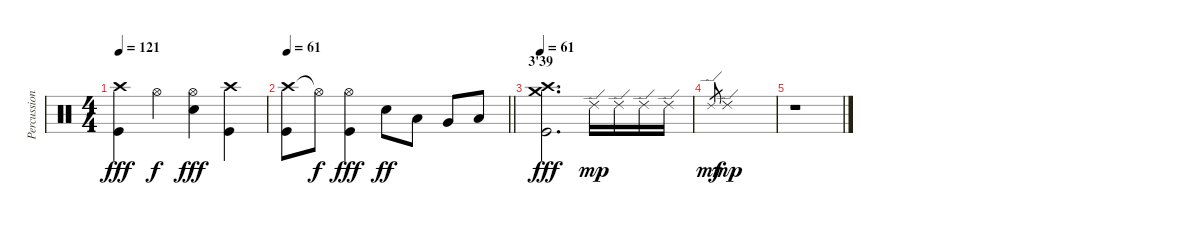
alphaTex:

\track ("Percussions" "Percussion") {instrument percussion}
\staff {score}
\articulation defaults
\ts (4 4)
\tempo 121
\clef neutral
\ks c
("Crash high (hit)" "Kick (hit)").4{dy fff} "Hi-Hat (open)".4{dy f} ("Hi-Hat (open)" "Electric Snare (hit)").4{dy fff} ("Crash high (hit)" "Kick (hit)").4 |
\tempo 61
\barLineRight lightlight
("Crash high (hit)" "Kick (hit)").8 "Hi-Hat (open)"{t}.8{dy f} ("Hi-Hat (open)" "Kick (hit)").4{dy fff} "Electric Snare (hit)".8{dy ff} "Low Tom (hit)".8 "Very Low Tom (hit)".8 "Low Floor Tom (hit)".8 |
\section ("" "3'39")
\tempo 61
("Crash high (hit)" "Crash medium (hit)" "Kick (hit)").2{d dy fff} "Ride (edge) 2".16{dy mp} "Ride (edge) 2".16 "Ride (edge) 2".16 "Ride (edge) 2".16 |
"Ride (edge) 2".8{gr dy mf} "Ride (edge) 2".1{dy mp} |
r.1
